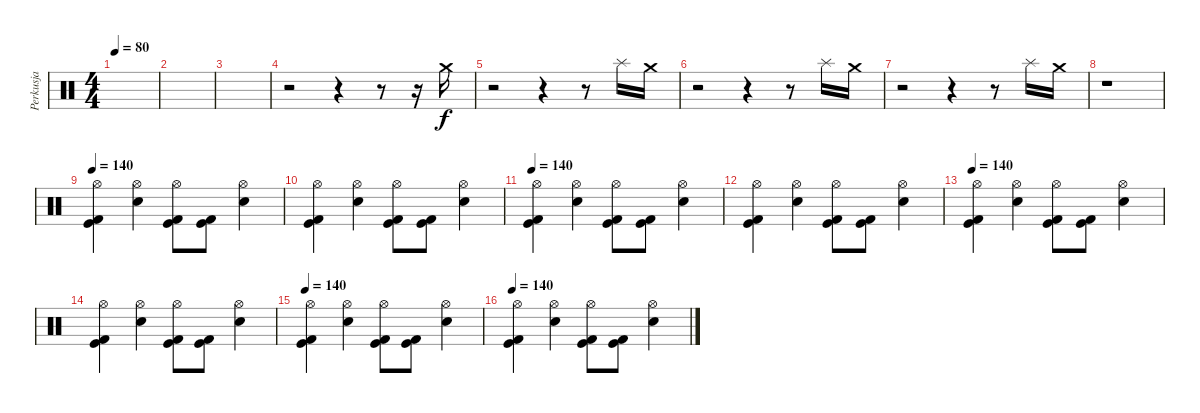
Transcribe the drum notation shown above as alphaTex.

\track ("Perkusja" "Perkusja") {instrument percussion}
\staff {score}
\articulation defaults
\ts (4 4)
\tempo 80
\clef neutral
\ks c
|
|
|
r.2 r.4 r.8 r.16 "Crash medium (hit)".16 |
r.2 r.4 r.8 "Splash (hit)".16 "Crash medium (hit)".16 |
r.2 r.4 r.8 "Splash (hit)".16 "Crash medium (hit)".16 |
r.2 r.4 r.8 "Splash (hit)".16 "Crash medium (hit)".16 |
r.1 |
\tempo 140
("Hi-Hat (open)" "Kick (hit)" "Kick (hit) 2").4 ("Hi-Hat (open)" "Snare (hit) 2").4 ("Hi-Hat (open)" "Kick (hit)" "Kick (hit) 2").8 ("Kick (hit)" "Kick (hit) 2").8 ("Hi-Hat (open)" "Snare (hit) 2").4 |
("Hi-Hat (open)" "Kick (hit)" "Kick (hit) 2").4 ("Hi-Hat (open)" "Snare (hit) 2").4 ("Hi-Hat (open)" "Kick (hit)" "Kick (hit) 2").8 ("Kick (hit)" "Kick (hit) 2").8 ("Hi-Hat (open)" "Snare (hit) 2").4 |
\tempo 140
("Hi-Hat (open)" "Kick (hit)" "Kick (hit) 2").4 ("Hi-Hat (open)" "Snare (hit) 2").4 ("Hi-Hat (open)" "Kick (hit)" "Kick (hit) 2").8 ("Kick (hit)" "Kick (hit) 2").8 ("Hi-Hat (open)" "Snare (hit) 2").4 |
("Hi-Hat (open)" "Kick (hit)" "Kick (hit) 2").4 ("Hi-Hat (open)" "Snare (hit) 2").4 ("Hi-Hat (open)" "Kick (hit)" "Kick (hit) 2").8 ("Kick (hit)" "Kick (hit) 2").8 ("Hi-Hat (open)" "Snare (hit) 2").4 |
\tempo 140
("Hi-Hat (open)" "Kick (hit)" "Kick (hit) 2").4 ("Hi-Hat (open)" "Snare (hit) 2").4 ("Hi-Hat (open)" "Kick (hit)" "Kick (hit) 2").8 ("Kick (hit)" "Kick (hit) 2").8 ("Hi-Hat (open)" "Snare (hit) 2").4 |
("Hi-Hat (open)" "Kick (hit)" "Kick (hit) 2").4 ("Hi-Hat (open)" "Snare (hit) 2").4 ("Hi-Hat (open)" "Kick (hit)" "Kick (hit) 2").8 ("Kick (hit)" "Kick (hit) 2").8 ("Hi-Hat (open)" "Snare (hit) 2").4 |
\tempo 140
("Hi-Hat (open)" "Kick (hit)" "Kick (hit) 2").4 ("Hi-Hat (open)" "Snare (hit) 2").4 ("Hi-Hat (open)" "Kick (hit)" "Kick (hit) 2").8 ("Kick (hit)" "Kick (hit) 2").8 ("Hi-Hat (open)" "Snare (hit) 2").4 |
\tempo 140
("Hi-Hat (open)" "Kick (hit)" "Kick (hit) 2").4 ("Hi-Hat (open)" "Snare (hit) 2").4 ("Hi-Hat (open)" "Kick (hit)" "Kick (hit) 2").8 ("Kick (hit)" "Kick (hit) 2").8 ("Hi-Hat (open)" "Snare (hit) 2").4
